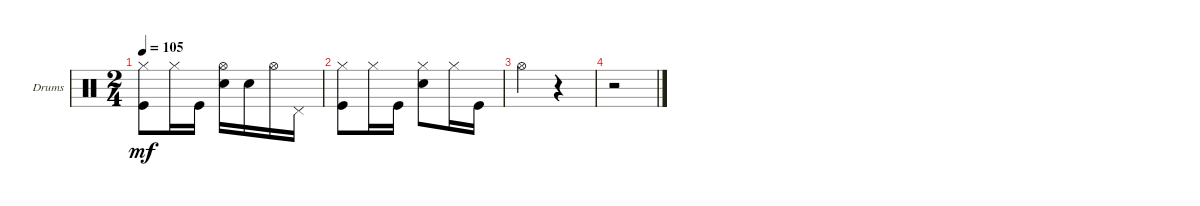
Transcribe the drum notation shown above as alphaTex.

\defaultSystemsLayout 4
\bracketExtendMode groupsimilarinstruments
\firstSystemTrackNameOrientation horizontal
\otherSystemsTrackNameOrientation horizontal
\track ("Drumkit" "Drums") {instrument percussion}
\staff {score}
\articulation defaults
\ts (2 4)
\tempo 105
\clef neutral
\ks c
("Hi-Hat (closed)" "Kick (hit)").8{dy mf} "Hi-Hat (closed)".16 "Kick (hit)".16 ("Hi-Hat (open)" "Snare (hit) 2").16 "Snare (hit) 2".16 "Hi-Hat (open)".16 "Pedal Hi-Hat (hit)".16 |
("Hi-Hat (closed)" "Kick (hit)").8 "Hi-Hat (closed)".16 "Kick (hit)".16 ("Hi-Hat (closed)" "Snare (hit) 2").8 "Hi-Hat (closed)".16 "Kick (hit)".16 |
"Hi-Hat (open)".4 r.4 |
r.2
